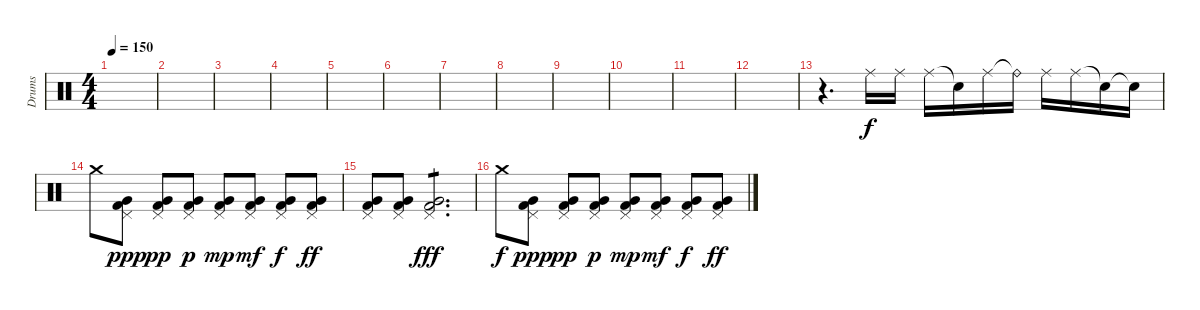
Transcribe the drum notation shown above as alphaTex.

\track ("Drums" "Drums") {instrument percussion}
\staff {score}
\articulation defaults
\ts (4 4)
\tempo 150
\clef neutral
\ks c
|
|
|
|
|
|
|
|
|
|
|
|
r.4{d} "Ride (middle)".16 "Ride (middle)".16 "Ride (middle)".16 "Snare (hit)"{t}.16 "Ride (middle)".16 "Ride (bell)"{t}.16 "Ride (middle)".16 "Ride (middle)".16 "Snare (hit)"{t}.16 "Snare (hit)"{t}.16 |
"Crash medium (hit)".8 ("Pedal Hi-Hat (hit)" "Kick (hit) 2" "Very Low Tom (hit)").8{dy ppp} ("Pedal Hi-Hat (hit)" "Kick (hit) 2" "Very Low Tom (hit)").8{dy pp} ("Pedal Hi-Hat (hit)" "Kick (hit) 2" "Very Low Tom (hit)").8{dy p} ("Pedal Hi-Hat (hit)" "Kick (hit) 2" "Very Low Tom (hit)").8{dy mp} ("Pedal Hi-Hat (hit)" "Kick (hit) 2" "Very Low Tom (hit)").8{dy mf} ("Pedal Hi-Hat (hit)" "Kick (hit) 2" "Very Low Tom (hit)").8{dy f} ("Pedal Hi-Hat (hit)" "Kick (hit) 2" "Very Low Tom (hit)").8{dy ff} |
("Pedal Hi-Hat (hit)" "Kick (hit) 2" "Very Low Tom (hit)").8 ("Pedal Hi-Hat (hit)" "Kick (hit) 2" "Very Low Tom (hit)").8 ("Pedal Hi-Hat (hit)" "Kick (hit) 2" "Very Low Tom (hit)").2{d tp 1 dy fff} |
"Crash medium (hit)".8{dy f} ("Pedal Hi-Hat (hit)" "Kick (hit) 2" "Very Low Tom (hit)").8{dy ppp} ("Pedal Hi-Hat (hit)" "Kick (hit) 2" "Very Low Tom (hit)").8{dy pp} ("Pedal Hi-Hat (hit)" "Kick (hit) 2" "Very Low Tom (hit)").8{dy p} ("Pedal Hi-Hat (hit)" "Kick (hit) 2" "Very Low Tom (hit)").8{dy mp} ("Pedal Hi-Hat (hit)" "Kick (hit) 2" "Very Low Tom (hit)").8{dy mf} ("Pedal Hi-Hat (hit)" "Kick (hit) 2" "Very Low Tom (hit)").8{dy f} ("Pedal Hi-Hat (hit)" "Kick (hit) 2" "Very Low Tom (hit)").8{dy ff}
